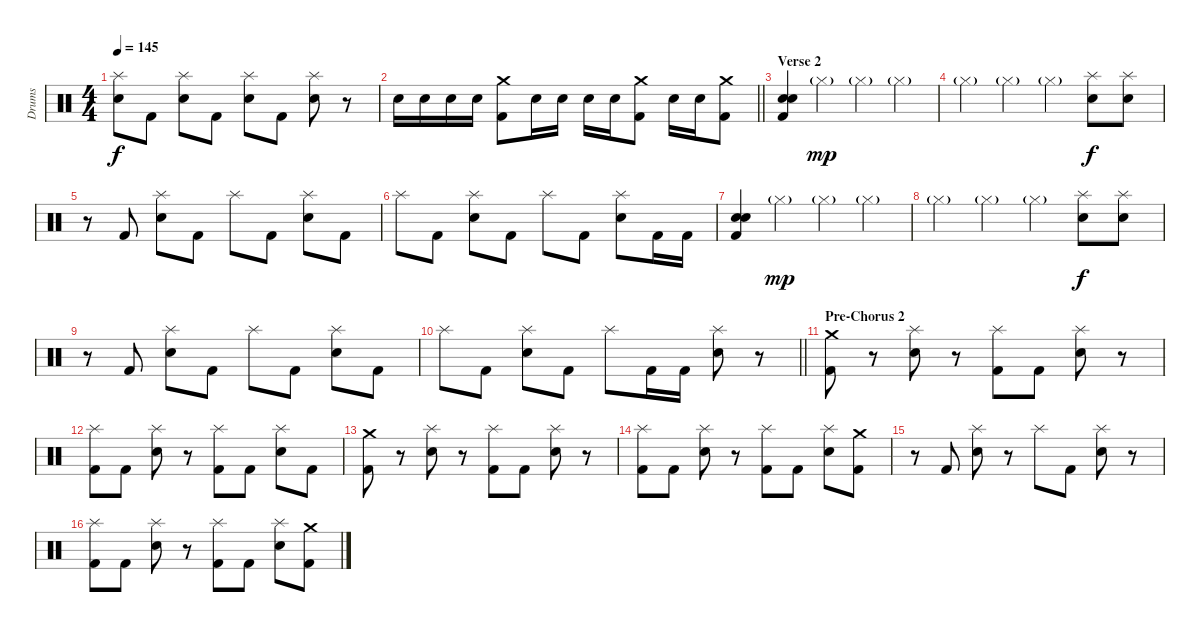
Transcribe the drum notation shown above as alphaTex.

\track ("Drums" "Drums") {instrument percussion}
\staff {score}
\articulation defaults
\ts (4 4)
\tempo 145
\clef neutral
\ks c
("Splash (hit)" "Snare (hit) 2").8{dy f} "Kick (hit) 2".8 ("Splash (hit)" "Snare (hit) 2").8 "Kick (hit) 2".8 ("Splash (hit)" "Snare (hit) 2").8 "Kick (hit) 2".8 ("Splash (hit)" "Snare (hit) 2").8 r.8 |
\barLineRight lightlight "Snare (hit) 2".16 "Snare (hit) 2".16 "Snare (hit) 2".16 "Snare (hit) 2".16
("Crash medium (hit)" "Kick (hit) 2").8 "Snare (hit) 2".16 "Snare (hit) 2".16 "Snare (hit) 2".16 "Snare (hit) 2".16 ("Crash medium (hit)" "Kick (hit) 2").8 "Snare (hit) 2".16 "Snare (hit) 2".16 ("Kick (hit) 2" "Crash medium (hit)").8 |
\section ("" "Verse 2")
("Electric Snare (hit)" "Electric Snare (hit)" "Kick (hit) 2").4 "Hi-Hat (closed)"{g}.4{dy mp} "Hi-Hat (closed)"{g}.4 "Hi-Hat (closed)"{g}.4 |
"Hi-Hat (closed)"{g}.4 "Hi-Hat (closed)"{g}.4 "Hi-Hat (closed)"{g}.4 ("Splash (hit)" "Snare (hit) 2").8{dy f} ("Splash (hit)" "Snare (hit) 2").8 |
r.8 "Kick (hit) 2".8 ("Snare (hit) 2" "Splash (hit)").8 "Kick (hit) 2".8 "Splash (hit)".8 "Kick (hit) 2".8 ("Snare (hit) 2" "Splash (hit)").8 "Kick (hit) 2".8 |
"Splash (hit)".8 "Kick (hit) 2".8 ("Snare (hit) 2" "Splash (hit)").8 "Kick (hit) 2".8 "Splash (hit)".8 "Kick (hit) 2".8 ("Splash (hit)" "Snare (hit) 2").8 "Kick (hit) 2".16 "Kick (hit) 2".16 |
("Electric Snare (hit)" "Electric Snare (hit)" "Kick (hit) 2").4 "Hi-Hat (closed)"{g}.4{dy mp} "Hi-Hat (closed)"{g}.4 "Hi-Hat (closed)"{g}.4 |
"Hi-Hat (closed)"{g}.4 "Hi-Hat (closed)"{g}.4 "Hi-Hat (closed)"{g}.4 ("Splash (hit)" "Snare (hit) 2").8{dy f} ("Splash (hit)" "Snare (hit) 2").8 |
r.8 "Kick (hit) 2".8 ("Snare (hit) 2" "Splash (hit)").8 "Kick (hit) 2".8 "Splash (hit)".8 "Kick (hit) 2".8 ("Snare (hit) 2" "Splash (hit)").8 "Kick (hit) 2".8 |
\barLineRight lightlight "Splash (hit)".8 "Kick (hit) 2".8
("Snare (hit) 2" "Splash (hit)").8 "Kick (hit) 2".8 "Splash (hit)".8 "Kick (hit) 2".16 "Kick (hit) 2".16 ("Splash (hit)" "Snare (hit) 2").8 r.8 |
\section ("" "Pre-Chorus 2")
("Crash medium (hit)" "Kick (hit) 2").8 r.8 ("Splash (hit)" "Snare (hit) 2").8 r.8 ("Splash (hit)" "Kick (hit) 2").8 "Kick (hit) 2".8 ("Splash (hit)" "Snare (hit) 2").8 r.8 |
("Splash (hit)" "Kick (hit) 2").8 "Kick (hit) 2".8 ("Splash (hit)" "Snare (hit) 2").8 r.8 ("Splash (hit)" "Kick (hit) 2").8 "Kick (hit) 2".8 ("Splash (hit)" "Snare (hit) 2").8 "Kick (hit) 2".8 |
("Crash medium (hit)" "Kick (hit) 2").8 r.8 ("Splash (hit)" "Snare (hit) 2").8 r.8 ("Splash (hit)" "Kick (hit) 2").8 "Kick (hit) 2".8 ("Splash (hit)" "Snare (hit) 2").8 r.8 |
("Splash (hit)" "Kick (hit) 2").8 "Kick (hit) 2".8 ("Splash (hit)" "Snare (hit) 2").8 r.8 ("Splash (hit)" "Kick (hit) 2").8 "Kick (hit) 2".8 ("Splash (hit)" "Snare (hit) 2").8 ("Crash medium (hit)" "Kick (hit) 2").8 |
r.8 "Kick (hit) 2".8 ("Splash (hit)" "Snare (hit) 2").8 r.8 "Splash (hit)".8 "Kick (hit) 2".8 ("Splash (hit)" "Snare (hit) 2").8 r.8 |
("Splash (hit)" "Kick (hit) 2").8 "Kick (hit) 2".8 ("Splash (hit)" "Snare (hit) 2").8 r.8 ("Splash (hit)" "Kick (hit) 2").8 "Kick (hit) 2".8 ("Splash (hit)" "Snare (hit) 2").8 ("Crash medium (hit)" "Kick (hit) 2").8
